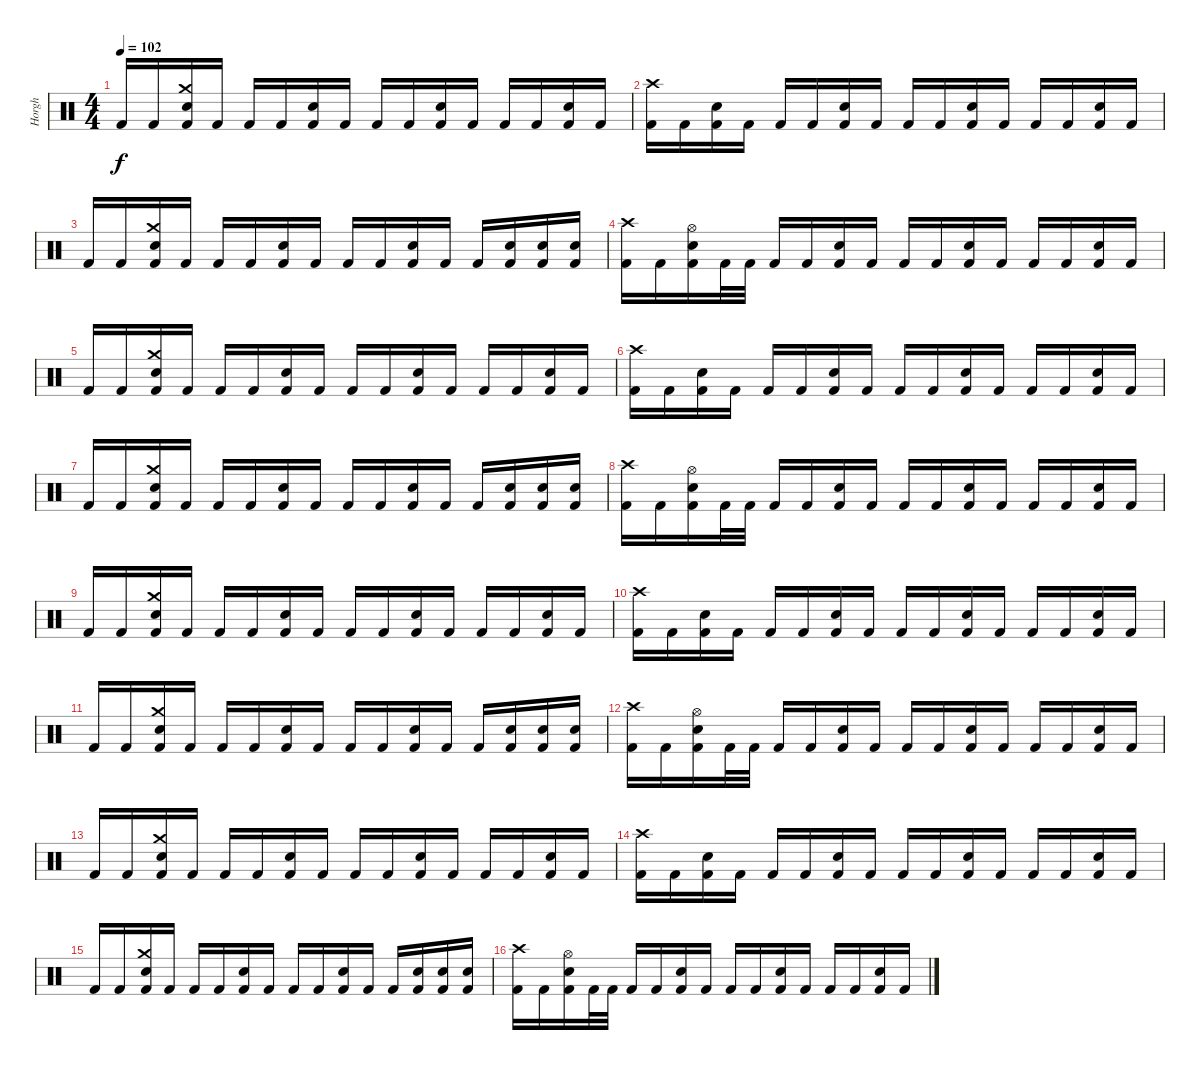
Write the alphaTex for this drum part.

\track ("Horgh" "Horgh") {instrument percussion}
\staff {score}
\articulation defaults
\ts (4 4)
\tempo 102
\clef neutral
\ks c "Kick (hit) 2".16{dy f} "Kick (hit) 2".16
("Crash medium (hit)" "Electric Snare (hit)" "Kick (hit) 2").16 "Kick (hit) 2".16 "Kick (hit) 2".16 "Kick (hit) 2".16 ("Electric Snare (hit)" "Kick (hit) 2").16 "Kick (hit) 2".16 "Kick (hit) 2".16 "Kick (hit) 2".16 ("Electric Snare (hit)" "Kick (hit) 2").16 "Kick (hit) 2".16 "Kick (hit) 2".16 "Kick (hit) 2".16 ("Electric Snare (hit)" "Kick (hit) 2").16 "Kick (hit) 2".16 |
("Crash high (hit)" "Kick (hit) 2").16 "Kick (hit) 2".16 ("Electric Snare (hit)" "Kick (hit) 2").16 "Kick (hit) 2".16 "Kick (hit) 2".16 "Kick (hit) 2".16 ("Electric Snare (hit)" "Kick (hit) 2").16 "Kick (hit) 2".16 "Kick (hit) 2".16 "Kick (hit) 2".16 ("Electric Snare (hit)" "Kick (hit) 2").16 "Kick (hit) 2".16 "Kick (hit) 2".16 "Kick (hit) 2".16 ("Electric Snare (hit)" "Kick (hit) 2").16 "Kick (hit) 2".16 |
"Kick (hit) 2".16 "Kick (hit) 2".16 ("Crash medium (hit)" "Electric Snare (hit)" "Kick (hit) 2").16 "Kick (hit) 2".16 "Kick (hit) 2".16 "Kick (hit) 2".16 ("Electric Snare (hit)" "Kick (hit) 2").16 "Kick (hit) 2".16 "Kick (hit) 2".16 "Kick (hit) 2".16 ("Electric Snare (hit)" "Kick (hit) 2").16 "Kick (hit) 2".16 "Kick (hit) 2".16 ("Electric Snare (hit)" "Kick (hit) 2").16 ("Electric Snare (hit)" "Kick (hit) 2").16 ("Electric Snare (hit)" "Kick (hit) 2").16 |
("Crash high (hit)" "Kick (hit) 2").16 "Kick (hit) 2".16 ("Hi-Hat (open)" "Electric Snare (hit)" "Kick (hit) 2").16 "Kick (hit) 2".32 "Kick (hit) 2".32 "Kick (hit) 2".16 "Kick (hit) 2".16 ("Electric Snare (hit)" "Kick (hit) 2").16 "Kick (hit) 2".16 "Kick (hit) 2".16 "Kick (hit) 2".16 ("Electric Snare (hit)" "Kick (hit) 2").16 "Kick (hit) 2".16 "Kick (hit) 2".16 "Kick (hit) 2".16 ("Electric Snare (hit)" "Kick (hit) 2").16 "Kick (hit) 2".16 |
"Kick (hit) 2".16 "Kick (hit) 2".16 ("Crash medium (hit)" "Electric Snare (hit)" "Kick (hit) 2").16 "Kick (hit) 2".16 "Kick (hit) 2".16 "Kick (hit) 2".16 ("Electric Snare (hit)" "Kick (hit) 2").16 "Kick (hit) 2".16 "Kick (hit) 2".16 "Kick (hit) 2".16 ("Electric Snare (hit)" "Kick (hit) 2").16 "Kick (hit) 2".16 "Kick (hit) 2".16 "Kick (hit) 2".16 ("Electric Snare (hit)" "Kick (hit) 2").16 "Kick (hit) 2".16 |
("Crash high (hit)" "Kick (hit) 2").16 "Kick (hit) 2".16 ("Electric Snare (hit)" "Kick (hit) 2").16 "Kick (hit) 2".16 "Kick (hit) 2".16 "Kick (hit) 2".16 ("Electric Snare (hit)" "Kick (hit) 2").16 "Kick (hit) 2".16 "Kick (hit) 2".16 "Kick (hit) 2".16 ("Electric Snare (hit)" "Kick (hit) 2").16 "Kick (hit) 2".16 "Kick (hit) 2".16 "Kick (hit) 2".16 ("Electric Snare (hit)" "Kick (hit) 2").16 "Kick (hit) 2".16 |
"Kick (hit) 2".16 "Kick (hit) 2".16 ("Crash medium (hit)" "Electric Snare (hit)" "Kick (hit) 2").16 "Kick (hit) 2".16 "Kick (hit) 2".16 "Kick (hit) 2".16 ("Electric Snare (hit)" "Kick (hit) 2").16 "Kick (hit) 2".16 "Kick (hit) 2".16 "Kick (hit) 2".16 ("Electric Snare (hit)" "Kick (hit) 2").16 "Kick (hit) 2".16 "Kick (hit) 2".16 ("Electric Snare (hit)" "Kick (hit) 2").16 ("Electric Snare (hit)" "Kick (hit) 2").16 ("Electric Snare (hit)" "Kick (hit) 2").16 |
("Crash high (hit)" "Kick (hit) 2").16 "Kick (hit) 2".16 ("Hi-Hat (open)" "Electric Snare (hit)" "Kick (hit) 2").16 "Kick (hit) 2".32 "Kick (hit) 2".32 "Kick (hit) 2".16 "Kick (hit) 2".16 ("Electric Snare (hit)" "Kick (hit) 2").16 "Kick (hit) 2".16 "Kick (hit) 2".16 "Kick (hit) 2".16 ("Electric Snare (hit)" "Kick (hit) 2").16 "Kick (hit) 2".16 "Kick (hit) 2".16 "Kick (hit) 2".16 ("Electric Snare (hit)" "Kick (hit) 2").16 "Kick (hit) 2".16 |
"Kick (hit) 2".16 "Kick (hit) 2".16 ("Crash medium (hit)" "Electric Snare (hit)" "Kick (hit) 2").16 "Kick (hit) 2".16 "Kick (hit) 2".16 "Kick (hit) 2".16 ("Electric Snare (hit)" "Kick (hit) 2").16 "Kick (hit) 2".16 "Kick (hit) 2".16 "Kick (hit) 2".16 ("Electric Snare (hit)" "Kick (hit) 2").16 "Kick (hit) 2".16 "Kick (hit) 2".16 "Kick (hit) 2".16 ("Electric Snare (hit)" "Kick (hit) 2").16 "Kick (hit) 2".16 |
("Crash high (hit)" "Kick (hit) 2").16 "Kick (hit) 2".16 ("Electric Snare (hit)" "Kick (hit) 2").16 "Kick (hit) 2".16 "Kick (hit) 2".16 "Kick (hit) 2".16 ("Electric Snare (hit)" "Kick (hit) 2").16 "Kick (hit) 2".16 "Kick (hit) 2".16 "Kick (hit) 2".16 ("Electric Snare (hit)" "Kick (hit) 2").16 "Kick (hit) 2".16 "Kick (hit) 2".16 "Kick (hit) 2".16 ("Electric Snare (hit)" "Kick (hit) 2").16 "Kick (hit) 2".16 |
"Kick (hit) 2".16 "Kick (hit) 2".16 ("Crash medium (hit)" "Electric Snare (hit)" "Kick (hit) 2").16 "Kick (hit) 2".16 "Kick (hit) 2".16 "Kick (hit) 2".16 ("Electric Snare (hit)" "Kick (hit) 2").16 "Kick (hit) 2".16 "Kick (hit) 2".16 "Kick (hit) 2".16 ("Electric Snare (hit)" "Kick (hit) 2").16 "Kick (hit) 2".16 "Kick (hit) 2".16 ("Electric Snare (hit)" "Kick (hit) 2").16 ("Electric Snare (hit)" "Kick (hit) 2").16 ("Electric Snare (hit)" "Kick (hit) 2").16 |
("Crash high (hit)" "Kick (hit) 2").16 "Kick (hit) 2".16 ("Hi-Hat (open)" "Electric Snare (hit)" "Kick (hit) 2").16 "Kick (hit) 2".32 "Kick (hit) 2".32 "Kick (hit) 2".16 "Kick (hit) 2".16 ("Electric Snare (hit)" "Kick (hit) 2").16 "Kick (hit) 2".16 "Kick (hit) 2".16 "Kick (hit) 2".16 ("Electric Snare (hit)" "Kick (hit) 2").16 "Kick (hit) 2".16 "Kick (hit) 2".16 "Kick (hit) 2".16 ("Electric Snare (hit)" "Kick (hit) 2").16 "Kick (hit) 2".16 |
"Kick (hit) 2".16 "Kick (hit) 2".16 ("Crash medium (hit)" "Electric Snare (hit)" "Kick (hit) 2").16 "Kick (hit) 2".16 "Kick (hit) 2".16 "Kick (hit) 2".16 ("Electric Snare (hit)" "Kick (hit) 2").16 "Kick (hit) 2".16 "Kick (hit) 2".16 "Kick (hit) 2".16 ("Electric Snare (hit)" "Kick (hit) 2").16 "Kick (hit) 2".16 "Kick (hit) 2".16 "Kick (hit) 2".16 ("Electric Snare (hit)" "Kick (hit) 2").16 "Kick (hit) 2".16 |
("Crash high (hit)" "Kick (hit) 2").16 "Kick (hit) 2".16 ("Electric Snare (hit)" "Kick (hit) 2").16 "Kick (hit) 2".16 "Kick (hit) 2".16 "Kick (hit) 2".16 ("Electric Snare (hit)" "Kick (hit) 2").16 "Kick (hit) 2".16 "Kick (hit) 2".16 "Kick (hit) 2".16 ("Electric Snare (hit)" "Kick (hit) 2").16 "Kick (hit) 2".16 "Kick (hit) 2".16 "Kick (hit) 2".16 ("Electric Snare (hit)" "Kick (hit) 2").16 "Kick (hit) 2".16 |
"Kick (hit) 2".16 "Kick (hit) 2".16 ("Crash medium (hit)" "Electric Snare (hit)" "Kick (hit) 2").16 "Kick (hit) 2".16 "Kick (hit) 2".16 "Kick (hit) 2".16 ("Electric Snare (hit)" "Kick (hit) 2").16 "Kick (hit) 2".16 "Kick (hit) 2".16 "Kick (hit) 2".16 ("Electric Snare (hit)" "Kick (hit) 2").16 "Kick (hit) 2".16 "Kick (hit) 2".16 ("Electric Snare (hit)" "Kick (hit) 2").16 ("Electric Snare (hit)" "Kick (hit) 2").16 ("Electric Snare (hit)" "Kick (hit) 2").16 |
("Crash high (hit)" "Kick (hit) 2").16 "Kick (hit) 2".16 ("Hi-Hat (open)" "Electric Snare (hit)" "Kick (hit) 2").16 "Kick (hit) 2".32 "Kick (hit) 2".32 "Kick (hit) 2".16 "Kick (hit) 2".16 ("Electric Snare (hit)" "Kick (hit) 2").16 "Kick (hit) 2".16 "Kick (hit) 2".16 "Kick (hit) 2".16 ("Electric Snare (hit)" "Kick (hit) 2").16 "Kick (hit) 2".16 "Kick (hit) 2".16 "Kick (hit) 2".16 ("Electric Snare (hit)" "Kick (hit) 2").16 "Kick (hit) 2".16
